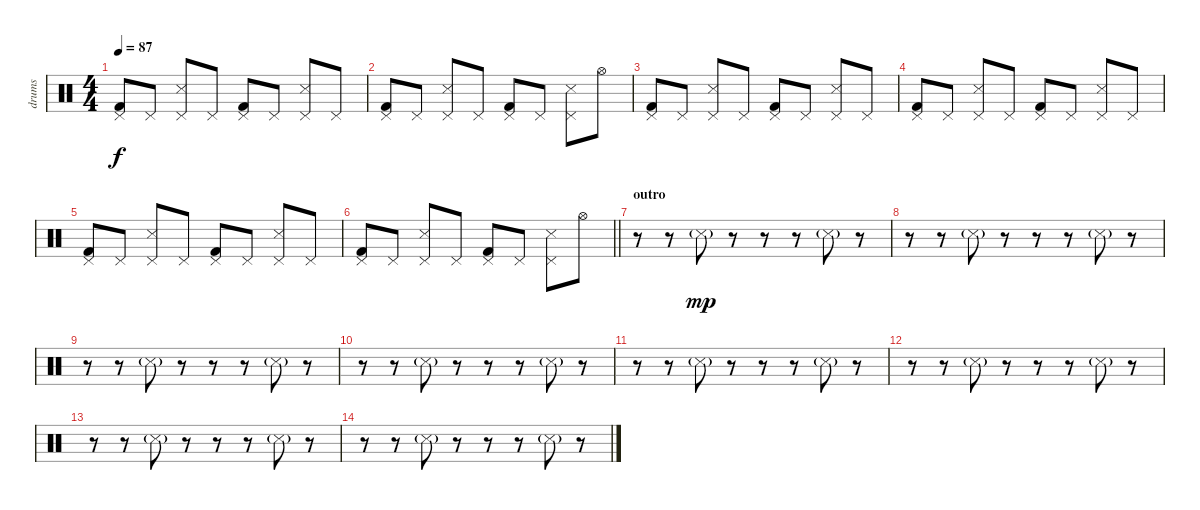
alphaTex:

\track ("drums" "drums") {instrument percussion}
\staff {score}
\articulation defaults
\ts (4 4)
\tempo 87
\clef neutral
\ks c
("Kick (hit) 2" "Pedal Hi-Hat (hit)").8{dy f} "Pedal Hi-Hat (hit)".8 ("Snare (side stick) 3" "Pedal Hi-Hat (hit)").8 "Pedal Hi-Hat (hit)".8 ("Kick (hit) 2" "Pedal Hi-Hat (hit)").8 "Pedal Hi-Hat (hit)".8 ("Snare (side stick) 3" "Pedal Hi-Hat (hit)").8 "Pedal Hi-Hat (hit)".8 |
("Kick (hit) 2" "Pedal Hi-Hat (hit)").8 "Pedal Hi-Hat (hit)".8 ("Snare (side stick) 3" "Pedal Hi-Hat (hit)").8 "Pedal Hi-Hat (hit)".8 ("Kick (hit) 2" "Pedal Hi-Hat (hit)").8 "Pedal Hi-Hat (hit)".8 ("Snare (side stick) 3" "Pedal Hi-Hat (hit)").8 "Hi-Hat (open)".8 |
("Kick (hit) 2" "Pedal Hi-Hat (hit)").8 "Pedal Hi-Hat (hit)".8 ("Snare (side stick) 3" "Pedal Hi-Hat (hit)").8 "Pedal Hi-Hat (hit)".8 ("Kick (hit) 2" "Pedal Hi-Hat (hit)").8 "Pedal Hi-Hat (hit)".8 ("Snare (side stick) 3" "Pedal Hi-Hat (hit)").8 "Pedal Hi-Hat (hit)".8 |
("Kick (hit) 2" "Pedal Hi-Hat (hit)").8 "Pedal Hi-Hat (hit)".8 ("Snare (side stick) 3" "Pedal Hi-Hat (hit)").8 "Pedal Hi-Hat (hit)".8 ("Kick (hit) 2" "Pedal Hi-Hat (hit)").8 "Pedal Hi-Hat (hit)".8 ("Snare (side stick) 3" "Pedal Hi-Hat (hit)").8 "Pedal Hi-Hat (hit)".8 |
("Kick (hit) 2" "Pedal Hi-Hat (hit)").8 "Pedal Hi-Hat (hit)".8 ("Snare (side stick) 3" "Pedal Hi-Hat (hit)").8 "Pedal Hi-Hat (hit)".8 ("Kick (hit) 2" "Pedal Hi-Hat (hit)").8 "Pedal Hi-Hat (hit)".8 ("Snare (side stick) 3" "Pedal Hi-Hat (hit)").8 "Pedal Hi-Hat (hit)".8 |
\barLineRight lightlight
("Kick (hit) 2" "Pedal Hi-Hat (hit)").8 "Pedal Hi-Hat (hit)".8 ("Snare (side stick) 3" "Pedal Hi-Hat (hit)").8 "Pedal Hi-Hat (hit)".8 ("Kick (hit) 2" "Pedal Hi-Hat (hit)").8 "Pedal Hi-Hat (hit)".8 ("Snare (side stick) 3" "Pedal Hi-Hat (hit)").8 "Hi-Hat (open)".8 |
\section ("" "outro")
r.8{volume 6} r.8 "Snare (side stick) 3"{g}.8{dy mp} r.8 r.8 r.8 "Snare (side stick) 3"{g}.8 r.8 |
r.8 r.8 "Snare (side stick) 3"{g}.8 r.8 r.8 r.8 "Snare (side stick) 3"{g}.8 r.8 |
r.8 r.8 "Snare (side stick) 3"{g}.8 r.8 r.8 r.8 "Snare (side stick) 3"{g}.8 r.8 |
r.8 r.8 "Snare (side stick) 3"{g}.8 r.8 r.8 r.8 "Snare (side stick) 3"{g}.8 r.8 |
r.8 r.8 "Snare (side stick) 3"{g}.8 r.8 r.8 r.8 "Snare (side stick) 3"{g}.8 r.8 |
r.8 r.8 "Snare (side stick) 3"{g}.8 r.8 r.8 r.8 "Snare (side stick) 3"{g}.8 r.8 |
r.8 r.8 "Snare (side stick) 3"{g}.8 r.8 r.8 r.8 "Snare (side stick) 3"{g}.8 r.8 |
r.8 r.8 "Snare (side stick) 3"{g}.8 r.8 r.8 r.8 "Snare (side stick) 3"{g}.8 r.8
